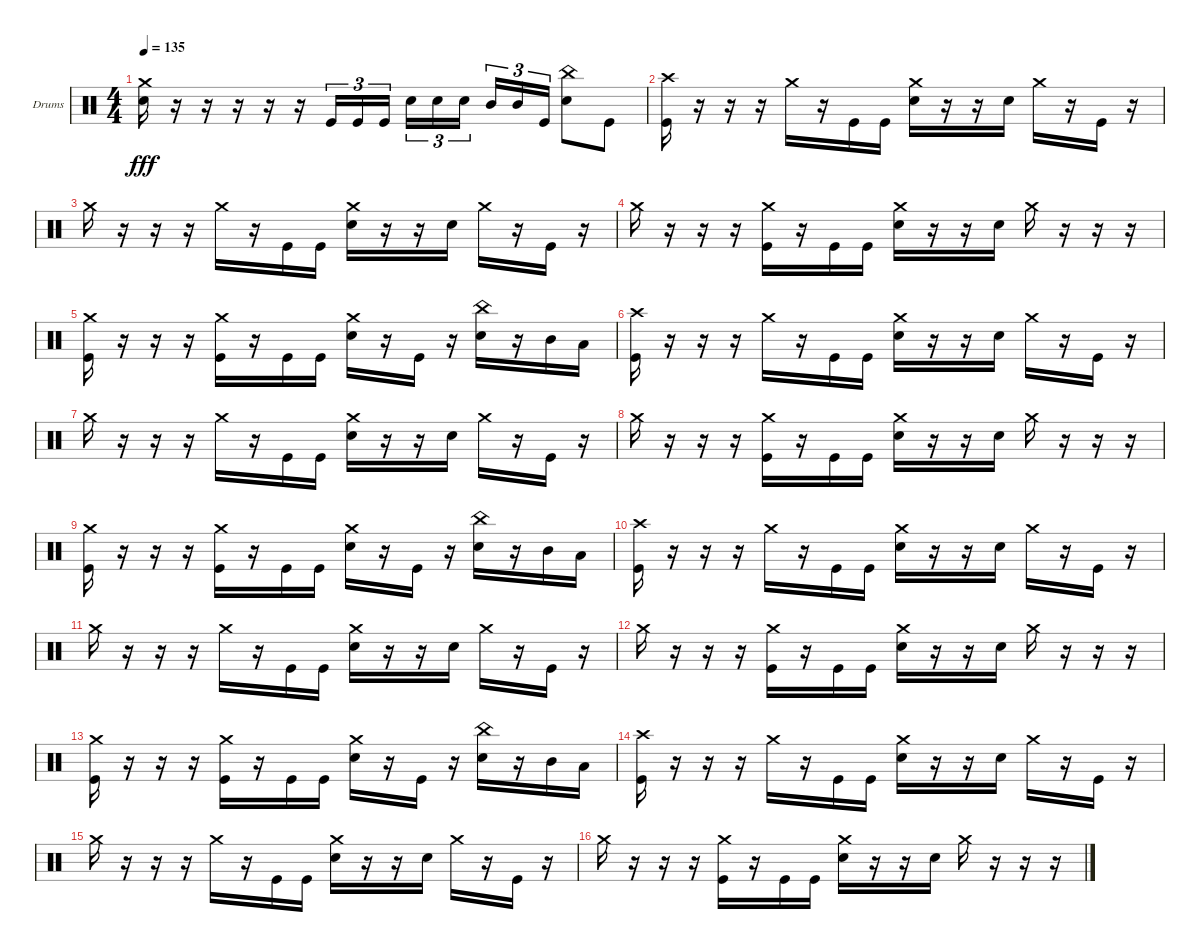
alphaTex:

\bracketExtendMode groupsimilarinstruments
\firstSystemTrackNameOrientation horizontal
\otherSystemsTrackNameOrientation horizontal
\track ("Drumkit" "Drums") {instrument percussion}
\staff {score}
\articulation defaults
\ts (4 4)
\tempo 135
\clef neutral
\ks c
("Crash medium (hit)" "Snare (hit) 2").16{dy fff} r.16 r.16 r.16 r.16 r.16 "Kick (hit)".16{tu (3 2)} "Kick (hit)".16{tu (3 2)} "Kick (hit)".16{tu (3 2)} "Snare (hit) 2".16{tu (3 2)} "Snare (hit) 2".16{tu (3 2)} "Snare (hit) 2".16{tu (3 2)} "Mid Tom (hit)".16{tu (3 2)} "Mid Tom (hit)".16{tu (3 2)} "Kick (hit)".16{tu (3 2)} ("Snare (hit) 2" "China (hit)").8 "Kick (hit)".8 |
("Kick (hit)" "Crash high (hit)").16 r.16 r.16 r.16 "Crash medium (hit)".16 r.16 "Kick (hit)".16 "Kick (hit)".16 ("Snare (hit) 2" "Crash medium (hit)").16 r.16 r.16 "Snare (hit) 2".16 "Crash medium (hit)".16 r.16 "Kick (hit)".16 r.16 |
"Crash medium (hit)".16 r.16 r.16 r.16 "Crash medium (hit)".16 r.16 "Kick (hit)".16 "Kick (hit)".16 ("Snare (hit) 2" "Crash medium (hit)").16 r.16 r.16 "Snare (hit) 2".16 "Crash medium (hit)".16 r.16 "Kick (hit)".16 r.16 |
"Crash medium (hit)".16 r.16 r.16 r.16 ("Crash medium (hit)" "Kick (hit)").16 r.16 "Kick (hit)".16 "Kick (hit)".16 ("Snare (hit) 2" "Crash medium (hit)").16 r.16 r.16 "Snare (hit) 2".16 "Crash medium (hit)".16 r.16 r.16 r.16 |
("Crash medium (hit)" "Kick (hit)").16 r.16 r.16 r.16 ("Crash medium (hit)" "Kick (hit)").16 r.16 "Kick (hit)".16 "Kick (hit)".16 ("Snare (hit) 2" "Crash medium (hit)").16 r.16 "Kick (hit)".16 r.16 ("China (hit)" "Snare (hit) 2").16 r.16 "Mid Tom (hit)".16 "Low Tom (hit)".16 |
("Kick (hit)" "Crash high (hit)").16 r.16 r.16 r.16 "Crash medium (hit)".16 r.16 "Kick (hit)".16 "Kick (hit)".16 ("Snare (hit) 2" "Crash medium (hit)").16 r.16 r.16 "Snare (hit) 2".16 "Crash medium (hit)".16 r.16 "Kick (hit)".16 r.16 |
"Crash medium (hit)".16 r.16 r.16 r.16 "Crash medium (hit)".16 r.16 "Kick (hit)".16 "Kick (hit)".16 ("Snare (hit) 2" "Crash medium (hit)").16 r.16 r.16 "Snare (hit) 2".16 "Crash medium (hit)".16 r.16 "Kick (hit)".16 r.16 |
"Crash medium (hit)".16 r.16 r.16 r.16 ("Crash medium (hit)" "Kick (hit)").16 r.16 "Kick (hit)".16 "Kick (hit)".16 ("Snare (hit) 2" "Crash medium (hit)").16 r.16 r.16 "Snare (hit) 2".16 "Crash medium (hit)".16 r.16 r.16 r.16 |
("Crash medium (hit)" "Kick (hit)").16 r.16 r.16 r.16 ("Crash medium (hit)" "Kick (hit)").16 r.16 "Kick (hit)".16 "Kick (hit)".16 ("Snare (hit) 2" "Crash medium (hit)").16 r.16 "Kick (hit)".16 r.16 ("China (hit)" "Snare (hit) 2").16 r.16 "Mid Tom (hit)".16 "Low Tom (hit)".16 |
("Kick (hit)" "Crash high (hit)").16 r.16 r.16 r.16 "Crash medium (hit)".16 r.16 "Kick (hit)".16 "Kick (hit)".16 ("Snare (hit) 2" "Crash medium (hit)").16 r.16 r.16 "Snare (hit) 2".16 "Crash medium (hit)".16 r.16 "Kick (hit)".16 r.16 |
"Crash medium (hit)".16 r.16 r.16 r.16 "Crash medium (hit)".16 r.16 "Kick (hit)".16 "Kick (hit)".16 ("Snare (hit) 2" "Crash medium (hit)").16 r.16 r.16 "Snare (hit) 2".16 "Crash medium (hit)".16 r.16 "Kick (hit)".16 r.16 |
"Crash medium (hit)".16 r.16 r.16 r.16 ("Crash medium (hit)" "Kick (hit)").16 r.16 "Kick (hit)".16 "Kick (hit)".16 ("Snare (hit) 2" "Crash medium (hit)").16 r.16 r.16 "Snare (hit) 2".16 "Crash medium (hit)".16 r.16 r.16 r.16 |
("Crash medium (hit)" "Kick (hit)").16 r.16 r.16 r.16 ("Crash medium (hit)" "Kick (hit)").16 r.16 "Kick (hit)".16 "Kick (hit)".16 ("Snare (hit) 2" "Crash medium (hit)").16 r.16 "Kick (hit)".16 r.16 ("China (hit)" "Snare (hit) 2").16 r.16 "Mid Tom (hit)".16 "Low Tom (hit)".16 |
("Kick (hit)" "Crash high (hit)").16 r.16 r.16 r.16 "Crash medium (hit)".16 r.16 "Kick (hit)".16 "Kick (hit)".16 ("Snare (hit) 2" "Crash medium (hit)").16 r.16 r.16 "Snare (hit) 2".16 "Crash medium (hit)".16 r.16 "Kick (hit)".16 r.16 |
"Crash medium (hit)".16 r.16 r.16 r.16 "Crash medium (hit)".16 r.16 "Kick (hit)".16 "Kick (hit)".16 ("Snare (hit) 2" "Crash medium (hit)").16 r.16 r.16 "Snare (hit) 2".16 "Crash medium (hit)".16 r.16 "Kick (hit)".16 r.16 |
"Crash medium (hit)".16 r.16 r.16 r.16 ("Crash medium (hit)" "Kick (hit)").16 r.16 "Kick (hit)".16 "Kick (hit)".16 ("Snare (hit) 2" "Crash medium (hit)").16 r.16 r.16 "Snare (hit) 2".16 "Crash medium (hit)".16 r.16 r.16 r.16
